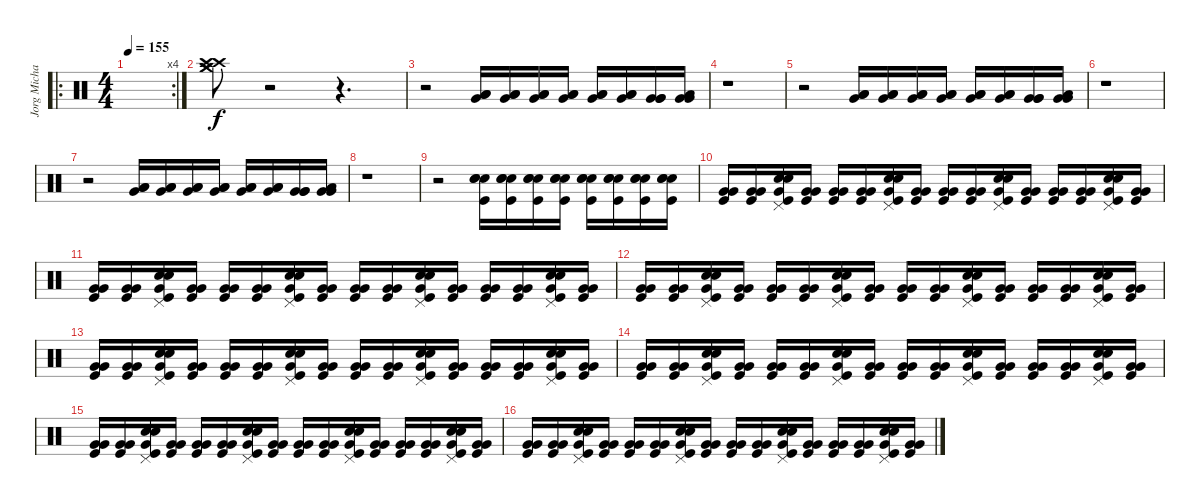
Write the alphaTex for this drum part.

\track ("Jorg Michael" "Jorg Micha") {instrument percussion}
\staff {score}
\articulation defaults
\ro
\rc 4
\ts (4 4)
\tempo 155
\clef neutral
\ks c
|
("Crash high (hit)" "Crash high (hit)" "Crash medium (hit)" "Crash medium (hit)").8 r.2 r.4{d} |
r.2 ("Low Floor Tom (hit)" "Low Floor Tom (hit)" "Very Low Tom (hit)").16 ("Low Floor Tom (hit)" "Low Floor Tom (hit)" "Very Low Tom (hit)").16 ("Low Floor Tom (hit)" "Low Floor Tom (hit)" "Very Low Tom (hit)").16 ("Low Floor Tom (hit)" "Low Floor Tom (hit)" "Very Low Tom (hit)").16 ("Low Tom (hit)" "Low Tom (hit)" "Very Low Tom (hit)").16 ("Low Tom (hit)" "Low Tom (hit)" "Very Low Tom (hit)").16 ("Very Low Tom (hit)" "Very Low Tom (hit)" "Very Low Tom (hit)").16 ("Very Low Tom (hit)" "Low Floor Tom (hit)" "Very Low Tom (hit)").16 |
r.1 |
r.2 ("Low Floor Tom (hit)" "Low Floor Tom (hit)" "Very Low Tom (hit)").16 ("Low Floor Tom (hit)" "Low Floor Tom (hit)" "Very Low Tom (hit)").16 ("Low Floor Tom (hit)" "Low Floor Tom (hit)" "Very Low Tom (hit)").16 ("Low Floor Tom (hit)" "Low Floor Tom (hit)" "Very Low Tom (hit)").16 ("Low Tom (hit)" "Low Tom (hit)" "Very Low Tom (hit)").16 ("Low Tom (hit)" "Low Tom (hit)" "Very Low Tom (hit)").16 ("Very Low Tom (hit)" "Very Low Tom (hit)" "Very Low Tom (hit)").16 ("Very Low Tom (hit)" "Low Floor Tom (hit)" "Very Low Tom (hit)").16 |
r.1 |
r.2 ("Low Floor Tom (hit)" "Low Floor Tom (hit)" "Very Low Tom (hit)").16 ("Low Floor Tom (hit)" "Low Floor Tom (hit)" "Very Low Tom (hit)").16 ("Low Floor Tom (hit)" "Low Floor Tom (hit)" "Very Low Tom (hit)").16 ("Low Floor Tom (hit)" "Low Floor Tom (hit)" "Very Low Tom (hit)").16 ("Low Tom (hit)" "Low Tom (hit)" "Very Low Tom (hit)").16 ("Low Tom (hit)" "Low Tom (hit)" "Very Low Tom (hit)").16 ("Very Low Tom (hit)" "Very Low Tom (hit)" "Very Low Tom (hit)").16 ("Very Low Tom (hit)" "Low Floor Tom (hit)" "Very Low Tom (hit)").16 |
r.1 |
r.2 ("Electric Snare (hit)" "Kick (hit)" "Snare (hit) 2" "Snare (hit) 2").16 ("Electric Snare (hit)" "Kick (hit)" "Snare (hit) 2" "Snare (hit) 2").16 ("Electric Snare (hit)" "Kick (hit)" "Snare (hit) 2" "Snare (hit) 2").16 ("Electric Snare (hit)" "Kick (hit)" "Snare (hit) 2" "Snare (hit) 2").16 ("Electric Snare (hit)" "Kick (hit)" "Snare (hit) 2" "Snare (hit) 2").16 ("Electric Snare (hit)" "Kick (hit)" "Snare (hit) 2" "Snare (hit) 2").16 ("Electric Snare (hit)" "Kick (hit)" "Snare (hit) 2" "Snare (hit) 2").16 ("Electric Snare (hit)" "Kick (hit)" "Snare (hit) 2" "Snare (hit) 2").16 |
("Very Low Tom (hit)" "Very Low Tom (hit)" "Kick (hit)").16 ("Very Low Tom (hit)" "Very Low Tom (hit)" "Kick (hit)").16 ("Snare (hit) 2" "Snare (hit) 2" "Pedal Hi-Hat (hit)" "Very Low Tom (hit)" "Kick (hit)").16 ("Very Low Tom (hit)" "Very Low Tom (hit)" "Kick (hit)").16 ("Very Low Tom (hit)" "Very Low Tom (hit)" "Kick (hit)").16 ("Very Low Tom (hit)" "Very Low Tom (hit)" "Kick (hit)").16 ("Snare (hit) 2" "Snare (hit) 2" "Pedal Hi-Hat (hit)" "Very Low Tom (hit)" "Kick (hit)").16 ("Very Low Tom (hit)" "Very Low Tom (hit)" "Kick (hit)").16 ("Very Low Tom (hit)" "Very Low Tom (hit)" "Kick (hit)").16 ("Very Low Tom (hit)" "Very Low Tom (hit)" "Kick (hit)").16 ("Snare (hit) 2" "Snare (hit) 2" "Pedal Hi-Hat (hit)" "Very Low Tom (hit)" "Kick (hit)").16 ("Very Low Tom (hit)" "Very Low Tom (hit)" "Kick (hit)").16 ("Very Low Tom (hit)" "Very Low Tom (hit)" "Kick (hit)").16 ("Very Low Tom (hit)" "Very Low Tom (hit)" "Kick (hit)").16 ("Snare (hit) 2" "Snare (hit) 2" "Pedal Hi-Hat (hit)" "Very Low Tom (hit)" "Kick (hit)").16 ("Very Low Tom (hit)" "Very Low Tom (hit)" "Kick (hit)").16 |
("Very Low Tom (hit)" "Very Low Tom (hit)" "Kick (hit)").16 ("Very Low Tom (hit)" "Very Low Tom (hit)" "Kick (hit)").16 ("Snare (hit) 2" "Snare (hit) 2" "Pedal Hi-Hat (hit)" "Very Low Tom (hit)" "Kick (hit)").16 ("Very Low Tom (hit)" "Very Low Tom (hit)" "Kick (hit)").16 ("Very Low Tom (hit)" "Very Low Tom (hit)" "Kick (hit)").16 ("Very Low Tom (hit)" "Very Low Tom (hit)" "Kick (hit)").16 ("Snare (hit) 2" "Snare (hit) 2" "Pedal Hi-Hat (hit)" "Very Low Tom (hit)" "Kick (hit)").16 ("Very Low Tom (hit)" "Very Low Tom (hit)" "Kick (hit)").16 ("Very Low Tom (hit)" "Very Low Tom (hit)" "Kick (hit)").16 ("Very Low Tom (hit)" "Very Low Tom (hit)" "Kick (hit)").16 ("Snare (hit) 2" "Snare (hit) 2" "Pedal Hi-Hat (hit)" "Very Low Tom (hit)" "Kick (hit)").16 ("Very Low Tom (hit)" "Very Low Tom (hit)" "Kick (hit)").16 ("Very Low Tom (hit)" "Very Low Tom (hit)" "Kick (hit)").16 ("Very Low Tom (hit)" "Very Low Tom (hit)" "Kick (hit)").16 ("Snare (hit) 2" "Snare (hit) 2" "Pedal Hi-Hat (hit)" "Very Low Tom (hit)" "Kick (hit)").16 ("Very Low Tom (hit)" "Very Low Tom (hit)" "Kick (hit)").16 |
("Very Low Tom (hit)" "Very Low Tom (hit)" "Kick (hit)").16 ("Very Low Tom (hit)" "Very Low Tom (hit)" "Kick (hit)").16 ("Snare (hit) 2" "Snare (hit) 2" "Pedal Hi-Hat (hit)" "Very Low Tom (hit)" "Kick (hit)").16 ("Very Low Tom (hit)" "Very Low Tom (hit)" "Kick (hit)").16 ("Very Low Tom (hit)" "Very Low Tom (hit)" "Kick (hit)").16 ("Very Low Tom (hit)" "Very Low Tom (hit)" "Kick (hit)").16 ("Snare (hit) 2" "Snare (hit) 2" "Pedal Hi-Hat (hit)" "Very Low Tom (hit)" "Kick (hit)").16 ("Very Low Tom (hit)" "Very Low Tom (hit)" "Kick (hit)").16 ("Very Low Tom (hit)" "Very Low Tom (hit)" "Kick (hit)").16 ("Very Low Tom (hit)" "Very Low Tom (hit)" "Kick (hit)").16 ("Snare (hit) 2" "Snare (hit) 2" "Pedal Hi-Hat (hit)" "Very Low Tom (hit)" "Kick (hit)").16 ("Very Low Tom (hit)" "Very Low Tom (hit)" "Kick (hit)").16 ("Very Low Tom (hit)" "Very Low Tom (hit)" "Kick (hit)").16 ("Very Low Tom (hit)" "Very Low Tom (hit)" "Kick (hit)").16 ("Snare (hit) 2" "Snare (hit) 2" "Pedal Hi-Hat (hit)" "Very Low Tom (hit)" "Kick (hit)").16 ("Very Low Tom (hit)" "Very Low Tom (hit)" "Kick (hit)").16 |
("Very Low Tom (hit)" "Very Low Tom (hit)" "Kick (hit)").16 ("Very Low Tom (hit)" "Very Low Tom (hit)" "Kick (hit)").16 ("Snare (hit) 2" "Snare (hit) 2" "Pedal Hi-Hat (hit)" "Very Low Tom (hit)" "Kick (hit)").16 ("Very Low Tom (hit)" "Very Low Tom (hit)" "Kick (hit)").16 ("Very Low Tom (hit)" "Very Low Tom (hit)" "Kick (hit)").16 ("Very Low Tom (hit)" "Very Low Tom (hit)" "Kick (hit)").16 ("Snare (hit) 2" "Snare (hit) 2" "Pedal Hi-Hat (hit)" "Very Low Tom (hit)" "Kick (hit)").16 ("Very Low Tom (hit)" "Very Low Tom (hit)" "Kick (hit)").16 ("Very Low Tom (hit)" "Very Low Tom (hit)" "Kick (hit)").16 ("Very Low Tom (hit)" "Very Low Tom (hit)" "Kick (hit)").16 ("Snare (hit) 2" "Snare (hit) 2" "Pedal Hi-Hat (hit)" "Very Low Tom (hit)" "Kick (hit)").16 ("Very Low Tom (hit)" "Very Low Tom (hit)" "Kick (hit)").16 ("Very Low Tom (hit)" "Very Low Tom (hit)" "Kick (hit)").16 ("Very Low Tom (hit)" "Very Low Tom (hit)" "Kick (hit)").16 ("Snare (hit) 2" "Snare (hit) 2" "Pedal Hi-Hat (hit)" "Very Low Tom (hit)" "Kick (hit)").16 ("Very Low Tom (hit)" "Very Low Tom (hit)" "Kick (hit)").16 |
("Very Low Tom (hit)" "Very Low Tom (hit)" "Kick (hit)").16 ("Very Low Tom (hit)" "Very Low Tom (hit)" "Kick (hit)").16 ("Snare (hit) 2" "Snare (hit) 2" "Pedal Hi-Hat (hit)" "Very Low Tom (hit)" "Kick (hit)").16 ("Very Low Tom (hit)" "Very Low Tom (hit)" "Kick (hit)").16 ("Very Low Tom (hit)" "Very Low Tom (hit)" "Kick (hit)").16 ("Very Low Tom (hit)" "Very Low Tom (hit)" "Kick (hit)").16 ("Snare (hit) 2" "Snare (hit) 2" "Pedal Hi-Hat (hit)" "Very Low Tom (hit)" "Kick (hit)").16 ("Very Low Tom (hit)" "Very Low Tom (hit)" "Kick (hit)").16 ("Very Low Tom (hit)" "Very Low Tom (hit)" "Kick (hit)").16 ("Very Low Tom (hit)" "Very Low Tom (hit)" "Kick (hit)").16 ("Snare (hit) 2" "Snare (hit) 2" "Pedal Hi-Hat (hit)" "Very Low Tom (hit)" "Kick (hit)").16 ("Very Low Tom (hit)" "Very Low Tom (hit)" "Kick (hit)").16 ("Very Low Tom (hit)" "Very Low Tom (hit)" "Kick (hit)").16 ("Very Low Tom (hit)" "Very Low Tom (hit)" "Kick (hit)").16 ("Snare (hit) 2" "Snare (hit) 2" "Pedal Hi-Hat (hit)" "Very Low Tom (hit)" "Kick (hit)").16 ("Very Low Tom (hit)" "Very Low Tom (hit)" "Kick (hit)").16 |
("Very Low Tom (hit)" "Very Low Tom (hit)" "Kick (hit)").16 ("Very Low Tom (hit)" "Very Low Tom (hit)" "Kick (hit)").16 ("Snare (hit) 2" "Snare (hit) 2" "Pedal Hi-Hat (hit)" "Very Low Tom (hit)" "Kick (hit)").16 ("Very Low Tom (hit)" "Very Low Tom (hit)" "Kick (hit)").16 ("Very Low Tom (hit)" "Very Low Tom (hit)" "Kick (hit)").16 ("Very Low Tom (hit)" "Very Low Tom (hit)" "Kick (hit)").16 ("Snare (hit) 2" "Snare (hit) 2" "Pedal Hi-Hat (hit)" "Very Low Tom (hit)" "Kick (hit)").16 ("Very Low Tom (hit)" "Very Low Tom (hit)" "Kick (hit)").16 ("Very Low Tom (hit)" "Very Low Tom (hit)" "Kick (hit)").16 ("Very Low Tom (hit)" "Very Low Tom (hit)" "Kick (hit)").16 ("Snare (hit) 2" "Snare (hit) 2" "Pedal Hi-Hat (hit)" "Very Low Tom (hit)" "Kick (hit)").16 ("Very Low Tom (hit)" "Very Low Tom (hit)" "Kick (hit)").16 ("Very Low Tom (hit)" "Very Low Tom (hit)" "Kick (hit)").16 ("Very Low Tom (hit)" "Very Low Tom (hit)" "Kick (hit)").16 ("Snare (hit) 2" "Snare (hit) 2" "Pedal Hi-Hat (hit)" "Very Low Tom (hit)" "Kick (hit)").16 ("Very Low Tom (hit)" "Very Low Tom (hit)" "Kick (hit)").16 |
("Very Low Tom (hit)" "Very Low Tom (hit)" "Kick (hit)").16 ("Very Low Tom (hit)" "Very Low Tom (hit)" "Kick (hit)").16 ("Snare (hit) 2" "Snare (hit) 2" "Pedal Hi-Hat (hit)" "Very Low Tom (hit)" "Kick (hit)").16 ("Very Low Tom (hit)" "Very Low Tom (hit)" "Kick (hit)").16 ("Very Low Tom (hit)" "Very Low Tom (hit)" "Kick (hit)").16 ("Very Low Tom (hit)" "Very Low Tom (hit)" "Kick (hit)").16 ("Snare (hit) 2" "Snare (hit) 2" "Pedal Hi-Hat (hit)" "Very Low Tom (hit)" "Kick (hit)").16 ("Very Low Tom (hit)" "Very Low Tom (hit)" "Kick (hit)").16 ("Very Low Tom (hit)" "Very Low Tom (hit)" "Kick (hit)").16 ("Very Low Tom (hit)" "Very Low Tom (hit)" "Kick (hit)").16 ("Snare (hit) 2" "Snare (hit) 2" "Pedal Hi-Hat (hit)" "Very Low Tom (hit)" "Kick (hit)").16 ("Very Low Tom (hit)" "Very Low Tom (hit)" "Kick (hit)").16 ("Very Low Tom (hit)" "Very Low Tom (hit)" "Kick (hit)").16 ("Very Low Tom (hit)" "Very Low Tom (hit)" "Kick (hit)").16 ("Snare (hit) 2" "Snare (hit) 2" "Pedal Hi-Hat (hit)" "Very Low Tom (hit)" "Kick (hit)").16 ("Very Low Tom (hit)" "Very Low Tom (hit)" "Kick (hit)").16
